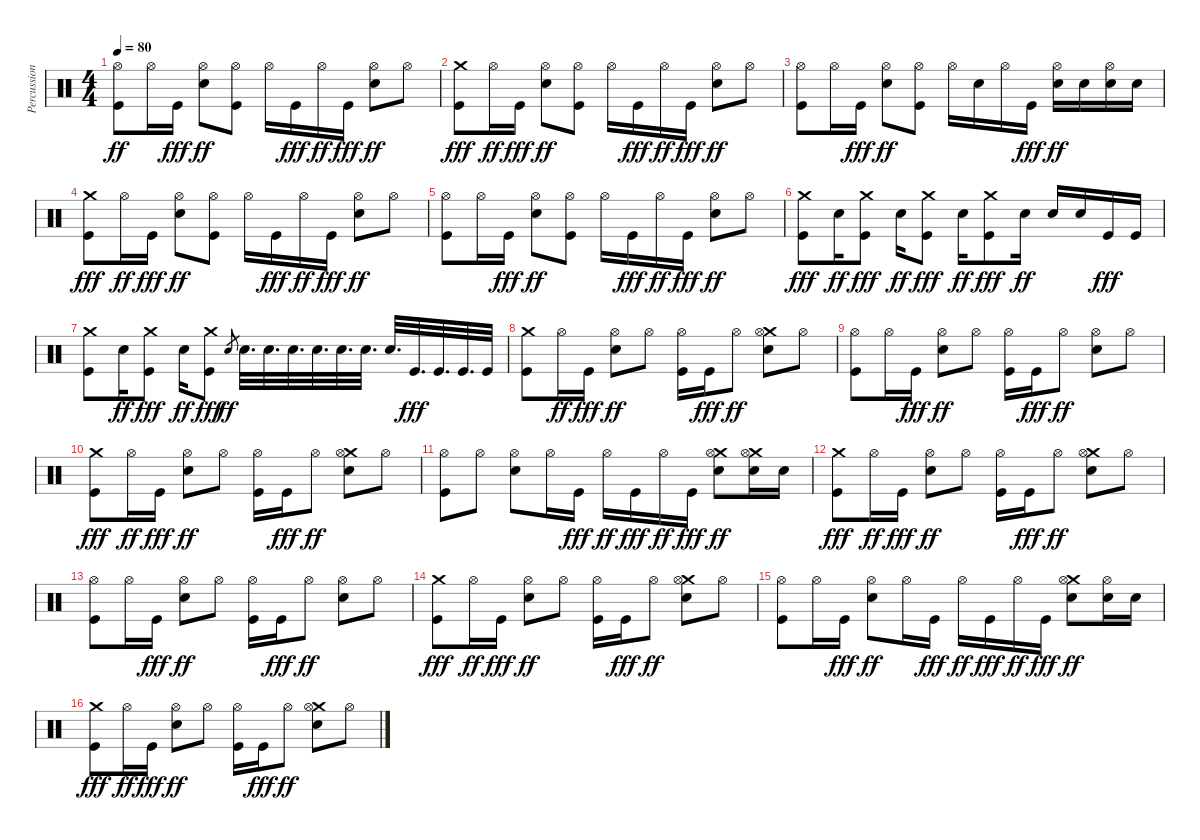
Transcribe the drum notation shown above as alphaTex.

\track ("Percussion" "Percussion") {instrument percussion}
\staff {score}
\articulation defaults
\ts (4 4)
\tempo 80
\clef neutral
\ks c
("Kick (hit)" "Hi-Hat (open)").8{dy ff} "Hi-Hat (open)".16 "Kick (hit)".16{dy fff} ("Snare (hit) 2" "Hi-Hat (open)").8{dy ff} ("Kick (hit)" "Hi-Hat (open)").8 "Hi-Hat (open)".16 "Kick (hit)".16{dy fff} "Hi-Hat (open)".16{dy ff} "Kick (hit)".16{dy fff} ("Snare (hit) 2" "Hi-Hat (open)").8{dy ff} "Hi-Hat (open)".8 |
("Kick (hit)" "Crash medium (hit)").8{dy fff} "Hi-Hat (open)".16{dy ff} "Kick (hit)".16{dy fff} ("Snare (hit) 2" "Hi-Hat (open)").8{dy ff} ("Kick (hit)" "Hi-Hat (open)").8 "Hi-Hat (open)".16 "Kick (hit)".16{dy fff} "Hi-Hat (open)".16{dy ff} "Kick (hit)".16{dy fff} ("Snare (hit) 2" "Hi-Hat (open)").8{dy ff} "Hi-Hat (open)".8 |
("Kick (hit)" "Hi-Hat (open)").8 "Hi-Hat (open)".16 "Kick (hit)".16{dy fff} ("Snare (hit) 2" "Hi-Hat (open)").8{dy ff} ("Kick (hit)" "Hi-Hat (open)").8 "Hi-Hat (open)".16 "Snare (hit) 2".16 "Hi-Hat (open)".16 "Kick (hit)".16{dy fff} ("Snare (hit) 2" "Hi-Hat (open)").16{dy ff} "Snare (hit) 2".16 ("Snare (hit) 2" "Hi-Hat (open)").16 "Snare (hit) 2".16 |
("Kick (hit)" "Crash medium (hit)").8{dy fff} "Hi-Hat (open)".16{dy ff} "Kick (hit)".16{dy fff} ("Snare (hit) 2" "Hi-Hat (open)").8{dy ff} ("Kick (hit)" "Hi-Hat (open)").8 "Hi-Hat (open)".16 "Kick (hit)".16{dy fff} "Hi-Hat (open)".16{dy ff} "Kick (hit)".16{dy fff} ("Snare (hit) 2" "Hi-Hat (open)").8{dy ff} "Hi-Hat (open)".8 |
("Kick (hit)" "Hi-Hat (open)").8 "Hi-Hat (open)".16 "Kick (hit)".16{dy fff} ("Snare (hit) 2" "Hi-Hat (open)").8{dy ff} ("Kick (hit)" "Hi-Hat (open)").8 "Hi-Hat (open)".16 "Kick (hit)".16{dy fff} "Hi-Hat (open)".16{dy ff} "Kick (hit)".16{dy fff} ("Snare (hit) 2" "Hi-Hat (open)").8{dy ff} "Hi-Hat (open)".8 |
("Kick (hit)" "Crash medium (hit)").8{dy fff} "Snare (hit) 2".16{dy ff} ("Kick (hit)" "Crash medium (hit)").8{dy fff} "Snare (hit) 2".16{dy ff} ("Kick (hit)" "Crash medium (hit)").8{dy fff} "Snare (hit) 2".16{dy ff} ("Kick (hit)" "Crash medium (hit)").8{dy fff} "Snare (hit) 2".16{dy ff} "Snare (hit) 2".16 "Snare (hit) 2".16 "Kick (hit)".16{dy fff} "Kick (hit)".16 |
("Kick (hit)" "Crash medium (hit)").8 "Snare (hit) 2".16{dy ff} ("Kick (hit)" "Crash medium (hit)").8{dy fff} "Snare (hit) 2".16{dy ff} ("Kick (hit)" "Crash medium (hit)").8{dy fff} "Snare (hit) 2".8{gr dy ff} "Snare (hit) 2".32{d} "Snare (hit) 2".32{d} "Snare (hit) 2".32{d} "Snare (hit) 2".32{d} "Snare (hit) 2".32{d} "Snare (hit) 2".32{d} "Snare (hit) 2".32{d} "Kick (hit)".32{d dy fff} "Kick (hit)".32{d} "Kick (hit)".32{d} "Kick (hit)".32 |
("Kick (hit)" "Crash medium (hit)").8 "Hi-Hat (open)".16{dy ff} "Kick (hit)".16{dy fff} ("Snare (hit) 2" "Hi-Hat (open)").8{dy ff} "Hi-Hat (open)".8 ("Kick (hit)" "Hi-Hat (open)").16 "Kick (hit)".16{dy fff} "Hi-Hat (open)".8{dy ff} ("Snare (hit) 2" "Crash medium (hit)" "Hi-Hat (open)").8 "Hi-Hat (open)".8 |
("Kick (hit)" "Hi-Hat (open)").8 "Hi-Hat (open)".16 "Kick (hit)".16{dy fff} ("Snare (hit) 2" "Hi-Hat (open)").8{dy ff} "Hi-Hat (open)".8 ("Kick (hit)" "Hi-Hat (open)").16 "Kick (hit)".16{dy fff} "Hi-Hat (open)".8{dy ff} ("Snare (hit) 2" "Hi-Hat (open)").8 "Hi-Hat (open)".8 |
("Kick (hit)" "Crash medium (hit)").8{dy fff} "Hi-Hat (open)".16{dy ff} "Kick (hit)".16{dy fff} ("Snare (hit) 2" "Hi-Hat (open)").8{dy ff} "Hi-Hat (open)".8 ("Kick (hit)" "Hi-Hat (open)").16 "Kick (hit)".16{dy fff} "Hi-Hat (open)".8{dy ff} ("Snare (hit) 2" "Crash medium (hit)" "Hi-Hat (open)").8 "Hi-Hat (open)".8 |
("Kick (hit)" "Hi-Hat (open)").8 "Hi-Hat (open)".8 ("Snare (hit) 2" "Hi-Hat (open)").8 "Hi-Hat (open)".16 "Kick (hit)".16{dy fff} "Hi-Hat (open)".16{dy ff} "Kick (hit)".16{dy fff} "Hi-Hat (open)".16{dy ff} "Kick (hit)".16{dy fff} ("Snare (hit) 2" "Crash medium (hit)" "Hi-Hat (open)").8{dy ff} ("Snare (hit) 2" "Crash medium (hit)" "Hi-Hat (open)").16 "Snare (hit) 2".16 |
("Kick (hit)" "Crash medium (hit)").8{dy fff} "Hi-Hat (open)".16{dy ff} "Kick (hit)".16{dy fff} ("Snare (hit) 2" "Hi-Hat (open)").8{dy ff} "Hi-Hat (open)".8 ("Kick (hit)" "Hi-Hat (open)").16 "Kick (hit)".16{dy fff} "Hi-Hat (open)".8{dy ff} ("Snare (hit) 2" "Crash medium (hit)" "Hi-Hat (open)").8 "Hi-Hat (open)".8 |
("Kick (hit)" "Hi-Hat (open)").8 "Hi-Hat (open)".16 "Kick (hit)".16{dy fff} ("Snare (hit) 2" "Hi-Hat (open)").8{dy ff} "Hi-Hat (open)".8 ("Kick (hit)" "Hi-Hat (open)").16 "Kick (hit)".16{dy fff} "Hi-Hat (open)".8{dy ff} ("Snare (hit) 2" "Hi-Hat (open)").8 "Hi-Hat (open)".8 |
("Kick (hit)" "Crash medium (hit)").8{dy fff} "Hi-Hat (open)".16{dy ff} "Kick (hit)".16{dy fff} ("Snare (hit) 2" "Hi-Hat (open)").8{dy ff} "Hi-Hat (open)".8 ("Kick (hit)" "Hi-Hat (open)").16 "Kick (hit)".16{dy fff} "Hi-Hat (open)".8{dy ff} ("Snare (hit) 2" "Crash medium (hit)" "Hi-Hat (open)").8 "Hi-Hat (open)".8 |
("Kick (hit)" "Hi-Hat (open)").8 "Hi-Hat (open)".16 "Kick (hit)".16{dy fff} ("Snare (hit) 2" "Hi-Hat (open)").8{dy ff} "Hi-Hat (open)".16 "Kick (hit)".16{dy fff} "Hi-Hat (open)".16{dy ff} "Kick (hit)".16{dy fff} "Hi-Hat (open)".16{dy ff} "Kick (hit)".16{dy fff} ("Snare (hit) 2" "Crash medium (hit)" "Hi-Hat (open)").8{dy ff} ("Snare (hit) 2" "Hi-Hat (open)").16 "Snare (hit) 2".16 |
("Kick (hit)" "Crash medium (hit)").8{dy fff} "Hi-Hat (open)".16{dy ff} "Kick (hit)".16{dy fff} ("Snare (hit) 2" "Hi-Hat (open)").8{dy ff} "Hi-Hat (open)".8 ("Kick (hit)" "Hi-Hat (open)").16 "Kick (hit)".16{dy fff} "Hi-Hat (open)".8{dy ff} ("Snare (hit) 2" "Crash medium (hit)" "Hi-Hat (open)").8 "Hi-Hat (open)".8
